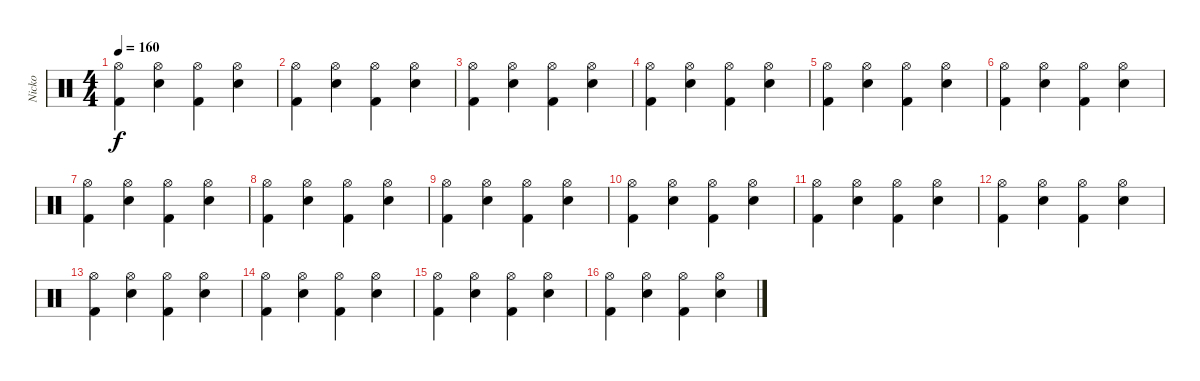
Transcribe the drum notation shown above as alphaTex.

\track ("Nicko" "Nicko") {instrument percussion}
\staff {score}
\articulation defaults
\ts (4 4)
\tempo 160
\clef neutral
\ks c
("Kick (hit) 2" "Hi-Hat (open)").4{dy f} ("Snare (hit) 2" "Hi-Hat (open)").4 ("Kick (hit) 2" "Hi-Hat (open)").4 ("Snare (hit) 2" "Hi-Hat (open)").4 |
("Kick (hit) 2" "Hi-Hat (open)").4 ("Snare (hit) 2" "Hi-Hat (open)").4 ("Kick (hit) 2" "Hi-Hat (open)").4 ("Snare (hit) 2" "Hi-Hat (open)").4 |
("Kick (hit) 2" "Hi-Hat (open)").4 ("Snare (hit) 2" "Hi-Hat (open)").4 ("Kick (hit) 2" "Hi-Hat (open)").4 ("Snare (hit) 2" "Hi-Hat (open)").4 |
("Kick (hit) 2" "Hi-Hat (open)").4 ("Snare (hit) 2" "Hi-Hat (open)").4 ("Kick (hit) 2" "Hi-Hat (open)").4 ("Snare (hit) 2" "Hi-Hat (open)").4 |
("Kick (hit) 2" "Hi-Hat (open)").4 ("Snare (hit) 2" "Hi-Hat (open)").4 ("Kick (hit) 2" "Hi-Hat (open)").4 ("Snare (hit) 2" "Hi-Hat (open)").4 |
("Kick (hit) 2" "Hi-Hat (open)").4 ("Snare (hit) 2" "Hi-Hat (open)").4 ("Kick (hit) 2" "Hi-Hat (open)").4 ("Snare (hit) 2" "Hi-Hat (open)").4 |
("Kick (hit) 2" "Hi-Hat (open)").4 ("Snare (hit) 2" "Hi-Hat (open)").4 ("Kick (hit) 2" "Hi-Hat (open)").4 ("Snare (hit) 2" "Hi-Hat (open)").4 |
("Kick (hit) 2" "Hi-Hat (open)").4 ("Snare (hit) 2" "Hi-Hat (open)").4 ("Kick (hit) 2" "Hi-Hat (open)").4 ("Snare (hit) 2" "Hi-Hat (open)").4 |
("Kick (hit) 2" "Hi-Hat (open)").4 ("Snare (hit) 2" "Hi-Hat (open)").4 ("Kick (hit) 2" "Hi-Hat (open)").4 ("Snare (hit) 2" "Hi-Hat (open)").4 |
("Kick (hit) 2" "Hi-Hat (open)").4 ("Snare (hit) 2" "Hi-Hat (open)").4 ("Kick (hit) 2" "Hi-Hat (open)").4 ("Snare (hit) 2" "Hi-Hat (open)").4 |
("Kick (hit) 2" "Hi-Hat (open)").4 ("Snare (hit) 2" "Hi-Hat (open)").4 ("Kick (hit) 2" "Hi-Hat (open)").4 ("Snare (hit) 2" "Hi-Hat (open)").4 |
("Kick (hit) 2" "Hi-Hat (open)").4 ("Snare (hit) 2" "Hi-Hat (open)").4 ("Kick (hit) 2" "Hi-Hat (open)").4 ("Snare (hit) 2" "Hi-Hat (open)").4 |
("Kick (hit) 2" "Hi-Hat (open)").4 ("Snare (hit) 2" "Hi-Hat (open)").4 ("Kick (hit) 2" "Hi-Hat (open)").4 ("Snare (hit) 2" "Hi-Hat (open)").4 |
("Kick (hit) 2" "Hi-Hat (open)").4 ("Snare (hit) 2" "Hi-Hat (open)").4 ("Kick (hit) 2" "Hi-Hat (open)").4 ("Snare (hit) 2" "Hi-Hat (open)").4 |
("Kick (hit) 2" "Hi-Hat (open)").4 ("Snare (hit) 2" "Hi-Hat (open)").4 ("Kick (hit) 2" "Hi-Hat (open)").4 ("Snare (hit) 2" "Hi-Hat (open)").4 |
("Kick (hit) 2" "Hi-Hat (open)").4 ("Snare (hit) 2" "Hi-Hat (open)").4 ("Kick (hit) 2" "Hi-Hat (open)").4 ("Snare (hit) 2" "Hi-Hat (open)").4
